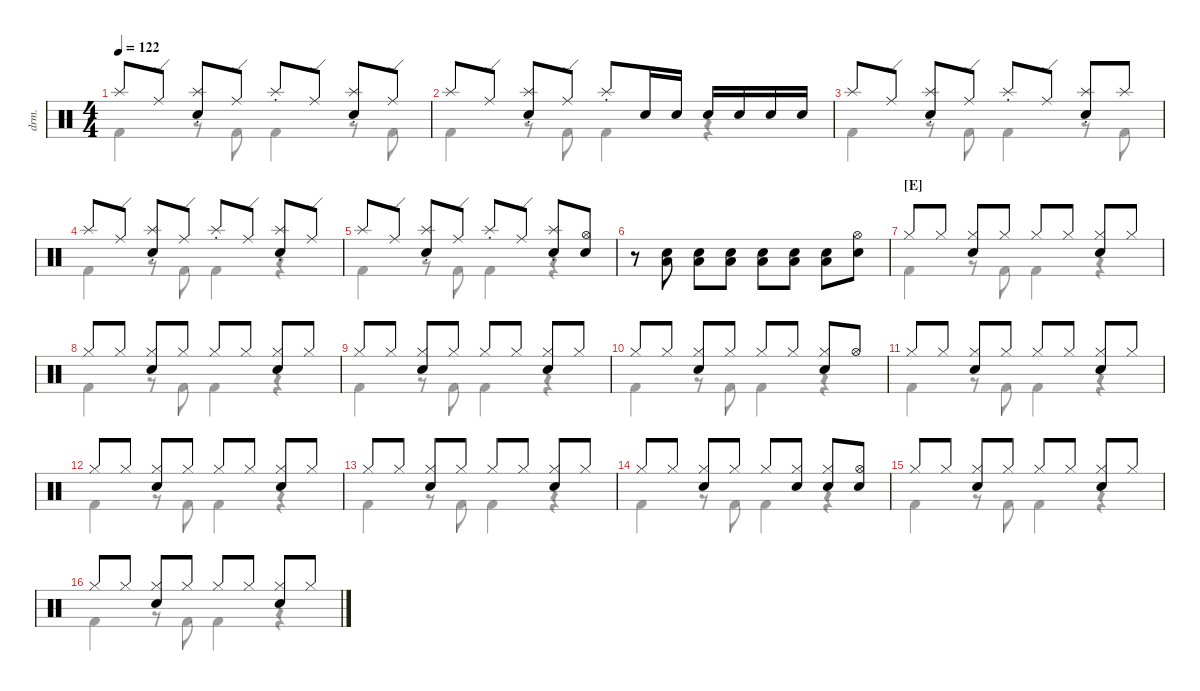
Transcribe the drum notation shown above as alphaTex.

\defaultSystemsLayout 4
\hideDynamics
\bracketExtendMode nobrackets
\track ("Drumkit" "drm.") {defaultSystemsLayout 4 instrument percussion}
\staff {score}
\articulation defaults
\voice
\ts (4 4)
\tempo 122
\clef neutral
\ks c "Splash (hit)".8{dy mf beam Up} "Ride (edge)".8{beam Up}
("Splash (choke)" "Snare (hit) 2").8{beam Up} "Ride (edge)".8{beam Up} "Splash (choke)".8{beam Up} "Ride (edge)".8{beam Up} ("Splash (choke)" "Snare (hit) 2").8{beam Up} "Ride (edge)".8{beam Up} |
"Splash (hit)".8{beam Up} "Ride (edge)".8{beam Up} ("Splash (choke)" "Snare (hit) 2").8{beam Up} "Ride (edge)".8{beam Up} "Splash (choke)".8{beam Up} "Snare (hit) 2".16{beam Up} "Snare (hit) 2".16{beam Up} "Snare (hit) 2".16{beam Up} "Snare (hit) 2".16{beam Up} "Snare (hit) 2".16{beam Up} "Snare (hit) 2".16{beam Up} |
"Splash (hit)".8{beam Up} "Ride (edge)".8{beam Up} ("Splash (choke)" "Snare (hit) 2").8{beam Up} "Ride (edge)".8{beam Up} "Splash (choke)".8{beam Up} "Ride (edge)".8{beam Up} ("Splash (choke)" "Snare (hit) 2").8{beam Up} "Splash (hit)".8{beam Up} |
"Splash (hit)".8{beam Up} "Ride (edge)".8{beam Up} ("Splash (choke)" "Snare (hit) 2").8{beam Up} "Ride (edge)".8{beam Up} "Splash (choke)".8{beam Up} "Ride (edge)".8{beam Up} ("Splash (choke)" "Snare (hit) 2").8{beam Up} "Ride (edge)".8{beam Up} |
"Splash (hit)".8{beam Up} "Ride (edge)".8{beam Up} ("Splash (choke)" "Snare (hit) 2").8{beam Up} "Ride (edge)".8{beam Up} "Splash (choke)".8{beam Up} "Ride (edge)".8{beam Up} ("Splash (choke)" "Snare (hit) 2").8{beam Up} ("Hi-Hat (open)" "Snare (hit) 2").8{beam Up} |
r.8{beam Down} ("Low Tom (hit)" "Snare (hit) 2").8{beam Down} ("Snare (hit) 2" "Low Tom (hit)").8{beam Down} ("Snare (hit) 2" "Low Tom (hit)").8{beam Down} ("Snare (hit) 2" "Low Tom (hit)").8{beam Down} ("Snare (hit) 2" "Low Tom (hit)").8{beam Down} ("Snare (hit) 2" "Low Tom (hit)").8{beam Down} ("Snare (hit) 2" "Hi-Hat (open)").8{beam Down} |
\section ("E" "")
"Hi-Hat (closed)".8{beam Up} "Hi-Hat (closed)".8{beam Up} ("Hi-Hat (closed)" "Snare (hit) 2").8{beam Up} "Hi-Hat (closed)".8{beam Up} "Hi-Hat (closed)".8{beam Up} "Hi-Hat (closed)".8{beam Up} ("Hi-Hat (closed)" "Snare (hit) 2").8{beam Up} "Hi-Hat (closed)".8{beam Up} |
"Hi-Hat (closed)".8{beam Up} "Hi-Hat (closed)".8{beam Up} ("Hi-Hat (closed)" "Snare (hit) 2").8{beam Up} "Hi-Hat (closed)".8{beam Up} "Hi-Hat (closed)".8{beam Up} "Hi-Hat (closed)".8{beam Up} ("Hi-Hat (closed)" "Snare (hit) 2").8{beam Up} "Hi-Hat (closed)".8{beam Up} |
"Hi-Hat (closed)".8{beam Up} "Hi-Hat (closed)".8{beam Up} ("Hi-Hat (closed)" "Snare (hit) 2").8{beam Up} "Hi-Hat (closed)".8{beam Up} "Hi-Hat (closed)".8{beam Up} "Hi-Hat (closed)".8{beam Up} ("Hi-Hat (closed)" "Snare (hit) 2").8{beam Up} "Hi-Hat (closed)".8{beam Up} |
"Hi-Hat (closed)".8{beam Up} "Hi-Hat (closed)".8{beam Up} ("Hi-Hat (closed)" "Snare (hit) 2").8{beam Up} "Hi-Hat (closed)".8{beam Up} "Hi-Hat (closed)".8{beam Up} "Hi-Hat (closed)".8{beam Up} ("Hi-Hat (closed)" "Snare (hit) 2").8{beam Up} "Hi-Hat (open)".8{beam Up} |
"Hi-Hat (closed)".8{beam Up} "Hi-Hat (closed)".8{beam Up} ("Hi-Hat (closed)" "Snare (hit) 2").8{beam Up} "Hi-Hat (closed)".8{beam Up} "Hi-Hat (closed)".8{beam Up} "Hi-Hat (closed)".8{beam Up} ("Hi-Hat (closed)" "Snare (hit) 2").8{beam Up} "Hi-Hat (closed)".8{beam Up} |
"Hi-Hat (closed)".8{beam Up} "Hi-Hat (closed)".8{beam Up} ("Hi-Hat (closed)" "Snare (hit) 2").8{beam Up} "Hi-Hat (closed)".8{beam Up} "Hi-Hat (closed)".8{beam Up} "Hi-Hat (closed)".8{beam Up} ("Hi-Hat (closed)" "Snare (hit) 2").8{beam Up} "Hi-Hat (closed)".8{beam Up} |
"Hi-Hat (closed)".8{beam Up} "Hi-Hat (closed)".8{beam Up} ("Hi-Hat (closed)" "Snare (hit) 2").8{beam Up} "Hi-Hat (closed)".8{beam Up} "Hi-Hat (closed)".8{beam Up} "Hi-Hat (closed)".8{beam Up} ("Hi-Hat (closed)" "Snare (hit) 2").8{beam Up} "Hi-Hat (closed)".8{beam Up} |
"Hi-Hat (closed)".8{beam Up} "Hi-Hat (closed)".8{beam Up} ("Hi-Hat (closed)" "Snare (hit) 2").8{beam Up} "Hi-Hat (closed)".8{beam Up} "Hi-Hat (closed)".8{beam Up} ("Hi-Hat (closed)" "Snare (hit) 2").8{beam Up} ("Hi-Hat (closed)" "Snare (hit) 2").8{beam Up} ("Hi-Hat (open)" "Snare (hit) 2").8{beam Up} |
"Hi-Hat (closed)".8{beam Up} "Hi-Hat (closed)".8{beam Up} ("Hi-Hat (closed)" "Snare (hit) 2").8{beam Up} "Hi-Hat (closed)".8{beam Up} "Hi-Hat (closed)".8{beam Up} "Hi-Hat (closed)".8{beam Up} ("Hi-Hat (closed)" "Snare (hit) 2").8{beam Up} "Hi-Hat (closed)".8{beam Up} |
"Hi-Hat (closed)".8{beam Up} "Hi-Hat (closed)".8{beam Up} ("Hi-Hat (closed)" "Snare (hit) 2").8{beam Up} "Hi-Hat (closed)".8{beam Up} "Hi-Hat (closed)".8{beam Up} "Hi-Hat (closed)".8{beam Up} ("Hi-Hat (closed)" "Snare (hit) 2").8{beam Up} "Hi-Hat (closed)".8{beam Up}
\voice
\clef neutral
\ottava regular
\simile none
\ks c
|
|
|
|
|
|
|
|
|
|
|
|
|
|
|
\voice
\clef neutral
\ottava regular
\simile none
\ks c "Kick (hit) 2".4{dy mf beam Down}
r.8{beam Down} "Kick (hit) 2".8{beam Down} "Kick (hit) 2".4{beam Down} r.8{beam Down} "Kick (hit) 2".8{beam Down} |
"Kick (hit) 2".4{beam Down} r.8{beam Down} "Kick (hit) 2".8{beam Down} "Kick (hit) 2".4{beam Down} r.4{beam Down} |
"Kick (hit) 2".4{beam Down} r.8{beam Down} "Kick (hit) 2".8{beam Down} "Kick (hit) 2".4{beam Down} r.8{beam Down} "Kick (hit) 2".8{beam Down} |
"Kick (hit) 2".4{beam Down} r.8{beam Down} "Kick (hit) 2".8{beam Down} "Kick (hit) 2".4{beam Down} r.4{beam Down} |
"Kick (hit) 2".4{beam Down} r.8{beam Down} "Kick (hit) 2".8{beam Down} "Kick (hit) 2".4{beam Down} r.4{beam Down} |
|
"Kick (hit) 2".4{beam Down} r.8{beam Down} "Kick (hit) 2".8{beam Down} "Kick (hit) 2".4{beam Down} r.4{beam Down} |
"Kick (hit) 2".4{beam Down} r.8{beam Down} "Kick (hit) 2".8{beam Down} "Kick (hit) 2".4{beam Down} r.4{beam Down} |
"Kick (hit) 2".4{beam Down} r.8{beam Down} "Kick (hit) 2".8{beam Down} "Kick (hit) 2".4{beam Down} r.4{beam Down} |
"Kick (hit) 2".4{beam Down} r.8{beam Down} "Kick (hit) 2".8{beam Down} "Kick (hit) 2".4{beam Down} r.4{beam Down} |
"Kick (hit) 2".4{beam Down} r.8{beam Down} "Kick (hit) 2".8{beam Down} "Kick (hit) 2".4{beam Down} r.4{beam Down} |
"Kick (hit) 2".4{beam Down} r.8{beam Down} "Kick (hit) 2".8{beam Down} "Kick (hit) 2".4{beam Down} r.4{beam Down} |
"Kick (hit) 2".4{beam Down} r.8{beam Down} "Kick (hit) 2".8{beam Down} "Kick (hit) 2".4{beam Down} r.4{beam Down} |
"Kick (hit) 2".4{beam Down} r.8{beam Down} "Kick (hit) 2".8{beam Down} "Kick (hit) 2".4{beam Down} r.4{beam Down} |
"Kick (hit) 2".4{beam Down} r.8{beam Down} "Kick (hit) 2".8{beam Down} "Kick (hit) 2".4{beam Down} r.4{beam Down} |
"Kick (hit) 2".4{beam Down} r.8{beam Down} "Kick (hit) 2".8{beam Down} "Kick (hit) 2".4{beam Down} r.4{beam Down}
